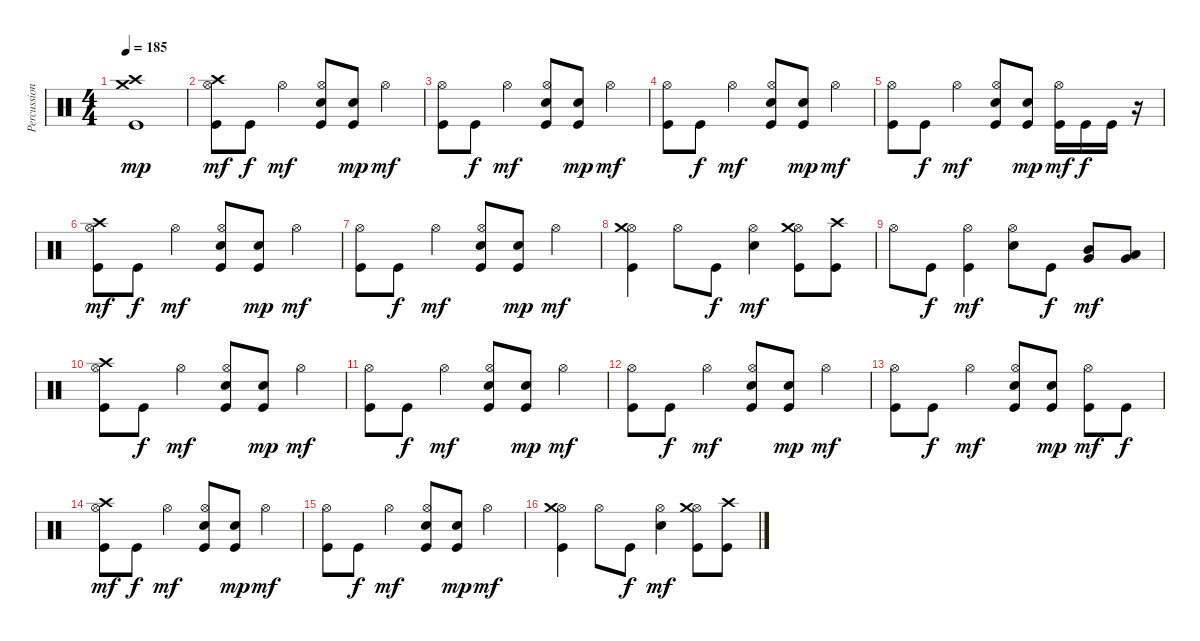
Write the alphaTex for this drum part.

\track ("Percussions" "Percussion") {instrument percussion}
\staff {score}
\articulation defaults
\ts (4 4)
\tempo 185
\clef neutral
\ks c
("Kick (hit)" "Crash medium (hit)" "Crash high (hit)").1{dy mp} |
("Kick (hit)" "Hi-Hat (open)" "Crash high (hit)").8{dy mf} "Kick (hit)".8{dy f} "Hi-Hat (open)".4{dy mf} ("Kick (hit)" "Electric Snare (hit)" "Hi-Hat (open)").8 ("Kick (hit)" "Electric Snare (hit)").8{dy mp} "Hi-Hat (open)".4{dy mf} |
("Kick (hit)" "Hi-Hat (open)").8 "Kick (hit)".8{dy f} "Hi-Hat (open)".4{dy mf} ("Kick (hit)" "Electric Snare (hit)" "Hi-Hat (open)").8 ("Kick (hit)" "Electric Snare (hit)").8{dy mp} "Hi-Hat (open)".4{dy mf} |
("Kick (hit)" "Hi-Hat (open)").8 "Kick (hit)".8{dy f} "Hi-Hat (open)".4{dy mf} ("Kick (hit)" "Electric Snare (hit)" "Hi-Hat (open)").8 ("Kick (hit)" "Electric Snare (hit)").8{dy mp} "Hi-Hat (open)".4{dy mf} |
("Kick (hit)" "Hi-Hat (open)").8 "Kick (hit)".8{dy f} "Hi-Hat (open)".4{dy mf} ("Kick (hit)" "Electric Snare (hit)" "Hi-Hat (open)").8 ("Kick (hit)" "Electric Snare (hit)").8{dy mp} ("Kick (hit)" "Hi-Hat (open)").16{dy mf} "Kick (hit)".16{dy f} "Kick (hit)".16 r.16 |
("Kick (hit)" "Hi-Hat (open)" "Crash high (hit)").8{dy mf} "Kick (hit)".8{dy f} "Hi-Hat (open)".4{dy mf} ("Kick (hit)" "Electric Snare (hit)" "Hi-Hat (open)").8 ("Kick (hit)" "Electric Snare (hit)").8{dy mp} "Hi-Hat (open)".4{dy mf} |
("Kick (hit)" "Hi-Hat (open)").8 "Kick (hit)".8{dy f} "Hi-Hat (open)".4{dy mf} ("Kick (hit)" "Electric Snare (hit)" "Hi-Hat (open)").8 ("Kick (hit)" "Electric Snare (hit)").8{dy mp} "Hi-Hat (open)".4{dy mf} |
("Kick (hit)" "Hi-Hat (open)" "Crash medium (hit)").4 "Hi-Hat (open)".8 "Kick (hit)".8{dy f} ("Electric Snare (hit)" "Hi-Hat (open)").4{dy mf} ("Kick (hit)" "Hi-Hat (open)" "Crash medium (hit)").8 ("Kick (hit)" "Crash high (hit)").8 |
"Hi-Hat (open)".8 "Kick (hit)".8{dy f} ("Kick (hit)" "Hi-Hat (open)").4{dy mf} ("Electric Snare (hit)" "Hi-Hat (open)").8 "Kick (hit)".8{dy f} ("Very Low Tom (hit)" "Mid Tom (hit)").8{dy mf} ("Very Low Tom (hit)" "Low Tom (hit)").8 |
("Kick (hit)" "Hi-Hat (open)" "Crash high (hit)").8 "Kick (hit)".8{dy f} "Hi-Hat (open)".4{dy mf} ("Kick (hit)" "Electric Snare (hit)" "Hi-Hat (open)").8 ("Kick (hit)" "Electric Snare (hit)").8{dy mp} "Hi-Hat (open)".4{dy mf} |
("Kick (hit)" "Hi-Hat (open)").8 "Kick (hit)".8{dy f} "Hi-Hat (open)".4{dy mf} ("Kick (hit)" "Electric Snare (hit)" "Hi-Hat (open)").8 ("Kick (hit)" "Electric Snare (hit)").8{dy mp} "Hi-Hat (open)".4{dy mf} |
("Kick (hit)" "Hi-Hat (open)").8 "Kick (hit)".8{dy f} "Hi-Hat (open)".4{dy mf} ("Kick (hit)" "Electric Snare (hit)" "Hi-Hat (open)").8 ("Kick (hit)" "Electric Snare (hit)").8{dy mp} "Hi-Hat (open)".4{dy mf} |
("Kick (hit)" "Hi-Hat (open)").8 "Kick (hit)".8{dy f} "Hi-Hat (open)".4{dy mf} ("Kick (hit)" "Electric Snare (hit)" "Hi-Hat (open)").8 ("Kick (hit)" "Electric Snare (hit)").8{dy mp} ("Kick (hit)" "Hi-Hat (open)").8{dy mf} "Kick (hit)".8{dy f} |
("Kick (hit)" "Hi-Hat (open)" "Crash high (hit)").8{dy mf} "Kick (hit)".8{dy f} "Hi-Hat (open)".4{dy mf} ("Kick (hit)" "Electric Snare (hit)" "Hi-Hat (open)").8 ("Kick (hit)" "Electric Snare (hit)").8{dy mp} "Hi-Hat (open)".4{dy mf} |
("Kick (hit)" "Hi-Hat (open)").8 "Kick (hit)".8{dy f} "Hi-Hat (open)".4{dy mf} ("Kick (hit)" "Electric Snare (hit)" "Hi-Hat (open)").8 ("Kick (hit)" "Electric Snare (hit)").8{dy mp} "Hi-Hat (open)".4{dy mf} |
("Kick (hit)" "Hi-Hat (open)" "Crash medium (hit)").4 "Hi-Hat (open)".8 "Kick (hit)".8{dy f} ("Electric Snare (hit)" "Hi-Hat (open)").4{dy mf} ("Kick (hit)" "Hi-Hat (open)" "Crash medium (hit)").8 ("Kick (hit)" "Crash high (hit)").8
